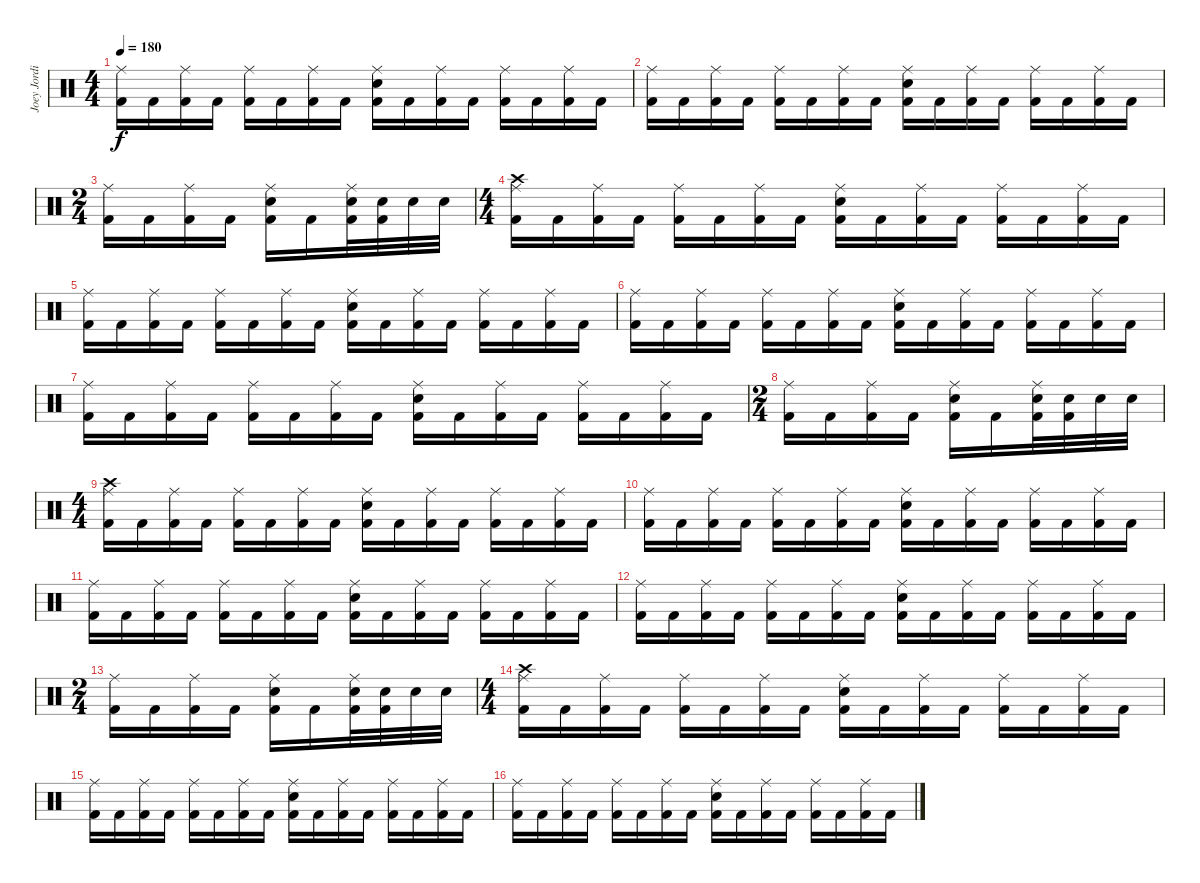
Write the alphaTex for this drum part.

\track ("Joey Jordison" "Joey Jordi") {instrument percussion}
\staff {score}
\articulation defaults
\ts (4 4)
\tempo 180
\clef neutral
\ks c
("Ride (middle)" "Kick (hit) 2").16{dy f} "Kick (hit) 2".16 ("Ride (middle)" "Kick (hit) 2").16 "Kick (hit) 2".16 ("Ride (middle)" "Kick (hit) 2").16 "Kick (hit) 2".16 ("Ride (middle)" "Kick (hit) 2").16 "Kick (hit) 2".16 ("Ride (middle)" "Electric Snare (hit)" "Kick (hit) 2").16 "Kick (hit) 2".16 ("Ride (middle)" "Kick (hit) 2").16 "Kick (hit) 2".16 ("Ride (middle)" "Kick (hit) 2").16 "Kick (hit) 2".16 ("Ride (middle)" "Kick (hit) 2").16 "Kick (hit) 2".16 |
("Ride (middle)" "Kick (hit) 2").16 "Kick (hit) 2".16 ("Ride (middle)" "Kick (hit) 2").16 "Kick (hit) 2".16 ("Ride (middle)" "Kick (hit) 2").16 "Kick (hit) 2".16 ("Ride (middle)" "Kick (hit) 2").16 "Kick (hit) 2".16 ("Ride (middle)" "Electric Snare (hit)" "Kick (hit) 2").16 "Kick (hit) 2".16 ("Ride (middle)" "Kick (hit) 2").16 "Kick (hit) 2".16 ("Ride (middle)" "Kick (hit) 2").16 "Kick (hit) 2".16 ("Ride (middle)" "Kick (hit) 2").16 "Kick (hit) 2".16 |
\ts (2 4)
("Ride (middle)" "Kick (hit) 2").16 "Kick (hit) 2".16 ("Ride (middle)" "Kick (hit) 2").16 "Kick (hit) 2".16 ("Ride (middle)" "Electric Snare (hit)" "Kick (hit) 2").16 "Kick (hit) 2".16 ("Ride (middle)" "Electric Snare (hit)" "Kick (hit) 2").32 ("Electric Snare (hit)" "Kick (hit) 2").32 "Electric Snare (hit)".32 "Electric Snare (hit)".32 |
\ts (4 4)
("Crash high (hit)" "Ride (middle)" "Kick (hit) 2").16 "Kick (hit) 2".16 ("Ride (middle)" "Kick (hit) 2").16 "Kick (hit) 2".16 ("Ride (middle)" "Kick (hit) 2").16 "Kick (hit) 2".16 ("Ride (middle)" "Kick (hit) 2").16 "Kick (hit) 2".16 ("Ride (middle)" "Electric Snare (hit)" "Kick (hit) 2").16 "Kick (hit) 2".16 ("Ride (middle)" "Kick (hit) 2").16 "Kick (hit) 2".16 ("Ride (middle)" "Kick (hit) 2").16 "Kick (hit) 2".16 ("Ride (middle)" "Kick (hit) 2").16 "Kick (hit) 2".16 |
("Ride (middle)" "Kick (hit) 2").16 "Kick (hit) 2".16 ("Ride (middle)" "Kick (hit) 2").16 "Kick (hit) 2".16 ("Ride (middle)" "Kick (hit) 2").16 "Kick (hit) 2".16 ("Ride (middle)" "Kick (hit) 2").16 "Kick (hit) 2".16 ("Ride (middle)" "Electric Snare (hit)" "Kick (hit) 2").16 "Kick (hit) 2".16 ("Ride (middle)" "Kick (hit) 2").16 "Kick (hit) 2".16 ("Ride (middle)" "Kick (hit) 2").16 "Kick (hit) 2".16 ("Ride (middle)" "Kick (hit) 2").16 "Kick (hit) 2".16 |
("Ride (middle)" "Kick (hit) 2").16 "Kick (hit) 2".16 ("Ride (middle)" "Kick (hit) 2").16 "Kick (hit) 2".16 ("Ride (middle)" "Kick (hit) 2").16 "Kick (hit) 2".16 ("Ride (middle)" "Kick (hit) 2").16 "Kick (hit) 2".16 ("Ride (middle)" "Electric Snare (hit)" "Kick (hit) 2").16 "Kick (hit) 2".16 ("Ride (middle)" "Kick (hit) 2").16 "Kick (hit) 2".16 ("Ride (middle)" "Kick (hit) 2").16 "Kick (hit) 2".16 ("Ride (middle)" "Kick (hit) 2").16 "Kick (hit) 2".16 |
("Ride (middle)" "Kick (hit) 2").16 "Kick (hit) 2".16 ("Ride (middle)" "Kick (hit) 2").16 "Kick (hit) 2".16 ("Ride (middle)" "Kick (hit) 2").16 "Kick (hit) 2".16 ("Ride (middle)" "Kick (hit) 2").16 "Kick (hit) 2".16 ("Ride (middle)" "Electric Snare (hit)" "Kick (hit) 2").16 "Kick (hit) 2".16 ("Ride (middle)" "Kick (hit) 2").16 "Kick (hit) 2".16 ("Ride (middle)" "Kick (hit) 2").16 "Kick (hit) 2".16 ("Ride (middle)" "Kick (hit) 2").16 "Kick (hit) 2".16 |
\ts (2 4)
("Ride (middle)" "Kick (hit) 2").16 "Kick (hit) 2".16 ("Ride (middle)" "Kick (hit) 2").16 "Kick (hit) 2".16 ("Ride (middle)" "Electric Snare (hit)" "Kick (hit) 2").16 "Kick (hit) 2".16 ("Ride (middle)" "Electric Snare (hit)" "Kick (hit) 2").32 ("Electric Snare (hit)" "Kick (hit) 2").32 "Electric Snare (hit)".32 "Electric Snare (hit)".32 |
\ts (4 4)
("Crash high (hit)" "Ride (middle)" "Kick (hit) 2").16 "Kick (hit) 2".16 ("Ride (middle)" "Kick (hit) 2").16 "Kick (hit) 2".16 ("Ride (middle)" "Kick (hit) 2").16 "Kick (hit) 2".16 ("Ride (middle)" "Kick (hit) 2").16 "Kick (hit) 2".16 ("Ride (middle)" "Electric Snare (hit)" "Kick (hit) 2").16 "Kick (hit) 2".16 ("Ride (middle)" "Kick (hit) 2").16 "Kick (hit) 2".16 ("Ride (middle)" "Kick (hit) 2").16 "Kick (hit) 2".16 ("Ride (middle)" "Kick (hit) 2").16 "Kick (hit) 2".16 |
("Ride (middle)" "Kick (hit) 2").16 "Kick (hit) 2".16 ("Ride (middle)" "Kick (hit) 2").16 "Kick (hit) 2".16 ("Ride (middle)" "Kick (hit) 2").16 "Kick (hit) 2".16 ("Ride (middle)" "Kick (hit) 2").16 "Kick (hit) 2".16 ("Ride (middle)" "Electric Snare (hit)" "Kick (hit) 2").16 "Kick (hit) 2".16 ("Ride (middle)" "Kick (hit) 2").16 "Kick (hit) 2".16 ("Ride (middle)" "Kick (hit) 2").16 "Kick (hit) 2".16 ("Ride (middle)" "Kick (hit) 2").16 "Kick (hit) 2".16 |
("Ride (middle)" "Kick (hit) 2").16 "Kick (hit) 2".16 ("Ride (middle)" "Kick (hit) 2").16 "Kick (hit) 2".16 ("Ride (middle)" "Kick (hit) 2").16 "Kick (hit) 2".16 ("Ride (middle)" "Kick (hit) 2").16 "Kick (hit) 2".16 ("Ride (middle)" "Electric Snare (hit)" "Kick (hit) 2").16 "Kick (hit) 2".16 ("Ride (middle)" "Kick (hit) 2").16 "Kick (hit) 2".16 ("Ride (middle)" "Kick (hit) 2").16 "Kick (hit) 2".16 ("Ride (middle)" "Kick (hit) 2").16 "Kick (hit) 2".16 |
("Ride (middle)" "Kick (hit) 2").16 "Kick (hit) 2".16 ("Ride (middle)" "Kick (hit) 2").16 "Kick (hit) 2".16 ("Ride (middle)" "Kick (hit) 2").16 "Kick (hit) 2".16 ("Ride (middle)" "Kick (hit) 2").16 "Kick (hit) 2".16 ("Ride (middle)" "Electric Snare (hit)" "Kick (hit) 2").16 "Kick (hit) 2".16 ("Ride (middle)" "Kick (hit) 2").16 "Kick (hit) 2".16 ("Ride (middle)" "Kick (hit) 2").16 "Kick (hit) 2".16 ("Ride (middle)" "Kick (hit) 2").16 "Kick (hit) 2".16 |
\ts (2 4)
("Ride (middle)" "Kick (hit) 2").16 "Kick (hit) 2".16 ("Ride (middle)" "Kick (hit) 2").16 "Kick (hit) 2".16 ("Ride (middle)" "Electric Snare (hit)" "Kick (hit) 2").16 "Kick (hit) 2".16 ("Ride (middle)" "Electric Snare (hit)" "Kick (hit) 2").32 ("Electric Snare (hit)" "Kick (hit) 2").32 "Electric Snare (hit)".32 "Electric Snare (hit)".32 |
\ts (4 4)
("Crash high (hit)" "Ride (middle)" "Kick (hit) 2").16 "Kick (hit) 2".16 ("Ride (middle)" "Kick (hit) 2").16 "Kick (hit) 2".16 ("Ride (middle)" "Kick (hit) 2").16 "Kick (hit) 2".16 ("Ride (middle)" "Kick (hit) 2").16 "Kick (hit) 2".16 ("Ride (middle)" "Electric Snare (hit)" "Kick (hit) 2").16 "Kick (hit) 2".16 ("Ride (middle)" "Kick (hit) 2").16 "Kick (hit) 2".16 ("Ride (middle)" "Kick (hit) 2").16 "Kick (hit) 2".16 ("Ride (middle)" "Kick (hit) 2").16 "Kick (hit) 2".16 |
("Ride (middle)" "Kick (hit) 2").16 "Kick (hit) 2".16 ("Ride (middle)" "Kick (hit) 2").16 "Kick (hit) 2".16 ("Ride (middle)" "Kick (hit) 2").16 "Kick (hit) 2".16 ("Ride (middle)" "Kick (hit) 2").16 "Kick (hit) 2".16 ("Ride (middle)" "Electric Snare (hit)" "Kick (hit) 2").16 "Kick (hit) 2".16 ("Ride (middle)" "Kick (hit) 2").16 "Kick (hit) 2".16 ("Ride (middle)" "Kick (hit) 2").16 "Kick (hit) 2".16 ("Ride (middle)" "Kick (hit) 2").16 "Kick (hit) 2".16 |
("Ride (middle)" "Kick (hit) 2").16 "Kick (hit) 2".16 ("Ride (middle)" "Kick (hit) 2").16 "Kick (hit) 2".16 ("Ride (middle)" "Kick (hit) 2").16 "Kick (hit) 2".16 ("Ride (middle)" "Kick (hit) 2").16 "Kick (hit) 2".16 ("Ride (middle)" "Electric Snare (hit)" "Kick (hit) 2").16 "Kick (hit) 2".16 ("Ride (middle)" "Kick (hit) 2").16 "Kick (hit) 2".16 ("Ride (middle)" "Kick (hit) 2").16 "Kick (hit) 2".16 ("Ride (middle)" "Kick (hit) 2").16 "Kick (hit) 2".16
